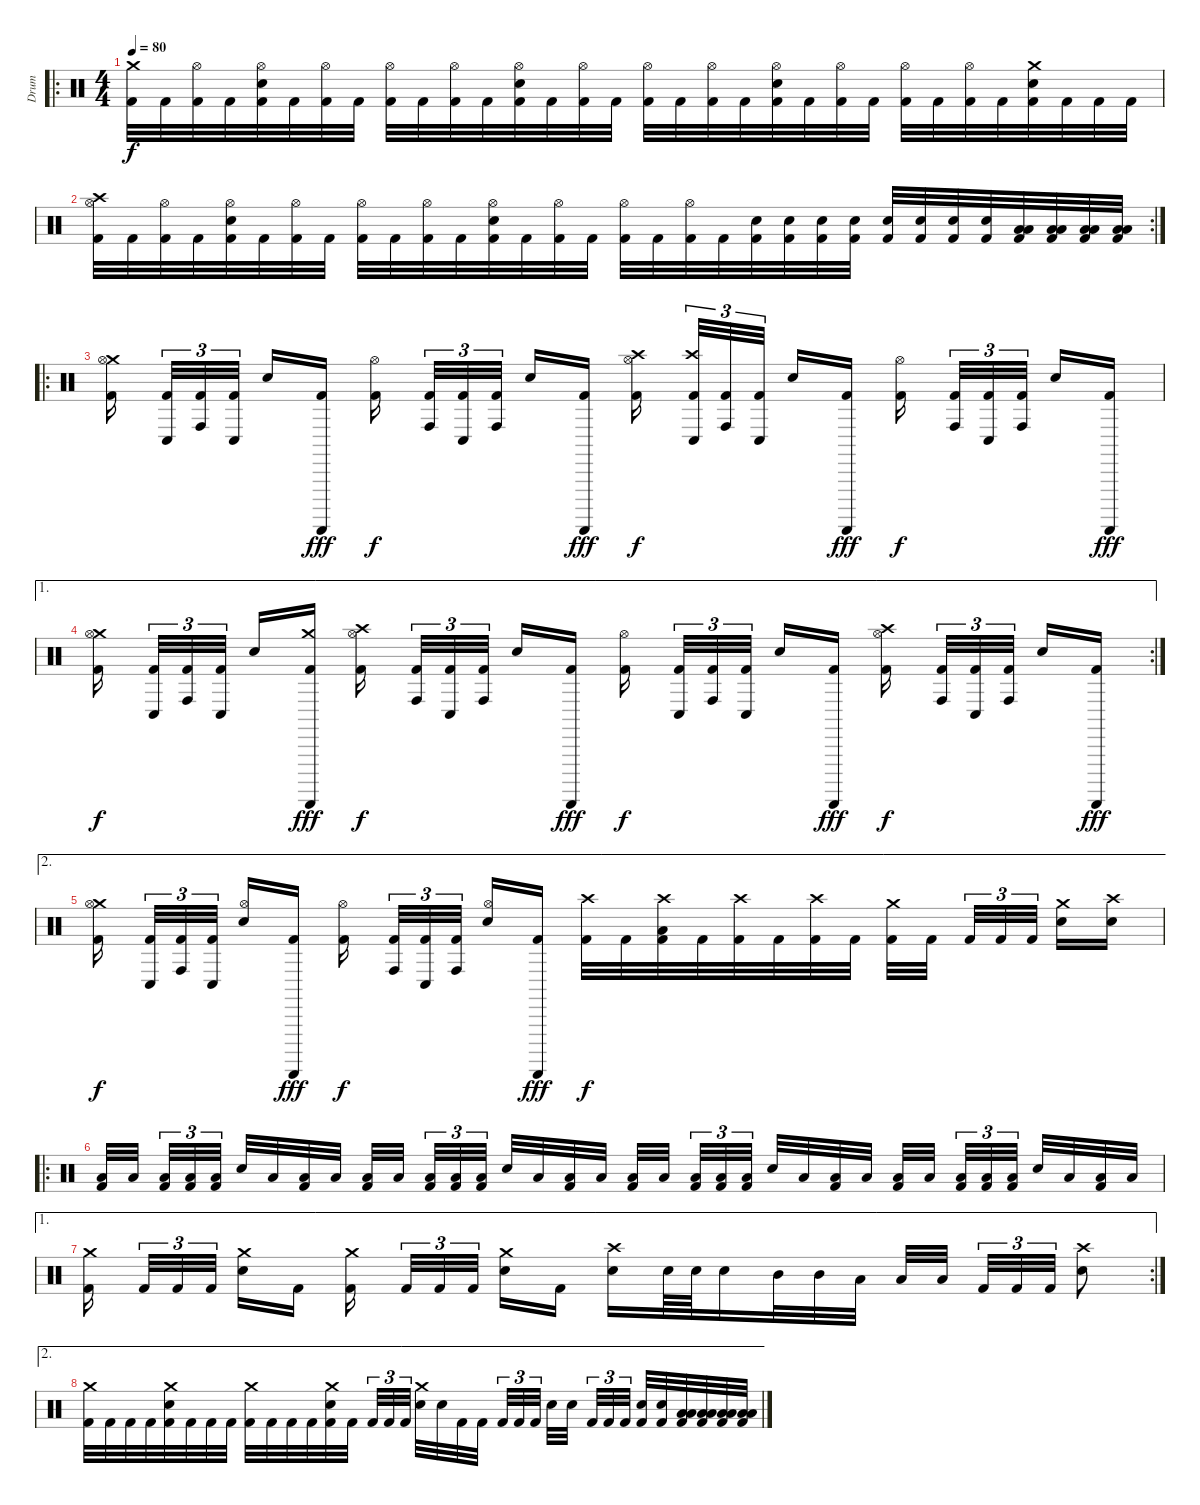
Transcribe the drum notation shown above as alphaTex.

\track ("Drum" "Drum") {instrument percussion}
\staff {score}
\articulation defaults
\ro
\ts (4 4)
\tempo 80
\clef neutral
\ks c
("Crash medium (hit)" "Kick (hit) 2").32{dy f} "Kick (hit) 2".32 ("Hi-Hat (open)" "Kick (hit) 2").32 "Kick (hit) 2".32 ("Hi-Hat (open)" "Electric Snare (hit)" "Kick (hit) 2").32 "Kick (hit) 2".32 ("Hi-Hat (open)" "Kick (hit) 2").32 "Kick (hit) 2".32 ("Hi-Hat (open)" "Kick (hit) 2").32 "Kick (hit) 2".32 ("Hi-Hat (open)" "Kick (hit) 2").32 "Kick (hit) 2".32 ("Hi-Hat (open)" "Electric Snare (hit)" "Kick (hit) 2").32 "Kick (hit) 2".32 ("Hi-Hat (open)" "Kick (hit) 2").32 "Kick (hit) 2".32 ("Hi-Hat (open)" "Kick (hit) 2").32 "Kick (hit) 2".32 ("Hi-Hat (open)" "Kick (hit) 2").32 "Kick (hit) 2".32 ("Hi-Hat (open)" "Electric Snare (hit)" "Kick (hit) 2").32 "Kick (hit) 2".32 ("Hi-Hat (open)" "Kick (hit) 2").32 "Kick (hit) 2".32 ("Hi-Hat (open)" "Kick (hit) 2").32 "Kick (hit) 2".32 ("Hi-Hat (open)" "Kick (hit) 2").32 "Kick (hit) 2".32 ("Crash medium (hit)" "Electric Snare (hit)" "Kick (hit) 2").32 "Kick (hit) 2".32 "Kick (hit) 2".32 "Kick (hit) 2".32 |
\rc 2
("Crash high (hit)" "Hi-Hat (open)" "Kick (hit) 2").32 "Kick (hit) 2".32 ("Hi-Hat (open)" "Kick (hit) 2").32 "Kick (hit) 2".32 ("Hi-Hat (open)" "Electric Snare (hit)" "Kick (hit) 2").32 "Kick (hit) 2".32 ("Hi-Hat (open)" "Kick (hit) 2").32 "Kick (hit) 2".32 ("Hi-Hat (open)" "Kick (hit) 2").32 "Kick (hit) 2".32 ("Hi-Hat (open)" "Kick (hit) 2").32 "Kick (hit) 2".32 ("Hi-Hat (open)" "Electric Snare (hit)" "Kick (hit) 2").32 "Kick (hit) 2".32 ("Hi-Hat (open)" "Kick (hit) 2").32 "Kick (hit) 2".32 ("Hi-Hat (open)" "Kick (hit) 2").32 "Kick (hit) 2".32 ("Hi-Hat (open)" "Kick (hit) 2").32 "Kick (hit) 2".32 ("Electric Snare (hit)" "Kick (hit) 2").32 ("Electric Snare (hit)" "Kick (hit) 2").32 ("Electric Snare (hit)" "Kick (hit) 2").32 ("Electric Snare (hit)" "Kick (hit) 2").32 ("Electric Snare (hit)" "Kick (hit) 2").32 ("Electric Snare (hit)" "Kick (hit) 2").32 ("Electric Snare (hit)" "Kick (hit) 2").32 ("Electric Snare (hit)" "Kick (hit) 2").32 ("Low Tom (hit)" "Low Tom (hit)" "Kick (hit) 2").32 ("Low Tom (hit)" "Low Tom (hit)" "Kick (hit) 2").32 ("Low Tom (hit)" "Low Tom (hit)" "Kick (hit) 2").32 ("Low Tom (hit)" "Low Tom (hit)" "Kick (hit) 2").32 |
\ro
("Crash medium (hit)" "Hi-Hat (open)" "Kick (hit) 2").16 ("Conga low (hit)" "Kick (hit) 2").32{tu (3 2)} ("Conga high (hit)" "Kick (hit) 2").32{tu (3 2)} ("Conga low (hit)" "Kick (hit) 2").32{tu (3 2)} "Electric Snare (hit)".16 ("Guiro (scrap-return)" "Kick (hit) 2").16{dy fff} ("Hi-Hat (open)" "Kick (hit) 2").16{dy f} ("Conga high (hit)" "Kick (hit) 2").32{tu (3 2)} ("Conga low (hit)" "Kick (hit) 2").32{tu (3 2)} ("Conga high (hit)" "Kick (hit) 2").32{tu (3 2)} "Electric Snare (hit)".16 ("Guiro (scrap-return)" "Kick (hit) 2").16{dy fff} ("Crash high (hit)" "Hi-Hat (open)" "Kick (hit) 2").16{dy f} ("Crash high (hit)" "Conga low (hit)" "Kick (hit) 2").32{tu (3 2)} ("Conga high (hit)" "Kick (hit) 2").32{tu (3 2)} ("Conga low (hit)" "Kick (hit) 2").32{tu (3 2)} "Electric Snare (hit)".16 ("Guiro (scrap-return)" "Kick (hit) 2").16{dy fff} ("Hi-Hat (open)" "Kick (hit) 2").16{dy f} ("Conga high (hit)" "Kick (hit) 2").32{tu (3 2)} ("Conga low (hit)" "Kick (hit) 2").32{tu (3 2)} ("Conga high (hit)" "Kick (hit) 2").32{tu (3 2)} "Electric Snare (hit)".16 ("Guiro (scrap-return)" "Kick (hit) 2").16{dy fff} |
\ae 1
\rc 2
("Crash medium (hit)" "Hi-Hat (open)" "Kick (hit) 2").16{dy f} ("Conga low (hit)" "Kick (hit) 2").32{tu (3 2)} ("Conga high (hit)" "Kick (hit) 2").32{tu (3 2)} ("Conga low (hit)" "Kick (hit) 2").32{tu (3 2)} "Electric Snare (hit)".16 ("Guiro (scrap-return)" "Crash medium (hit)" "Kick (hit) 2").16{dy fff} ("Crash high (hit)" "Hi-Hat (open)" "Kick (hit) 2").16{dy f} ("Conga high (hit)" "Kick (hit) 2").32{tu (3 2)} ("Conga low (hit)" "Kick (hit) 2").32{tu (3 2)} ("Conga high (hit)" "Kick (hit) 2").32{tu (3 2)} "Electric Snare (hit)".16 ("Guiro (scrap-return)" "Kick (hit) 2").16{dy fff} ("Hi-Hat (open)" "Kick (hit) 2").16{dy f} ("Conga low (hit)" "Kick (hit) 2").32{tu (3 2)} ("Conga high (hit)" "Kick (hit) 2").32{tu (3 2)} ("Conga low (hit)" "Kick (hit) 2").32{tu (3 2)} "Electric Snare (hit)".16 ("Guiro (scrap-return)" "Kick (hit) 2").16{dy fff} ("Crash high (hit)" "Hi-Hat (open)" "Kick (hit) 2").16{dy f} ("Conga high (hit)" "Kick (hit) 2").32{tu (3 2)} ("Conga low (hit)" "Kick (hit) 2").32{tu (3 2)} ("Conga high (hit)" "Kick (hit) 2").32{tu (3 2)} "Electric Snare (hit)".16 ("Guiro (scrap-return)" "Kick (hit) 2").16{dy fff} |
\ae 2
("Crash medium (hit)" "Hi-Hat (open)" "Kick (hit) 2").16{dy f} ("Conga low (hit)" "Kick (hit) 2").32{tu (3 2)} ("Conga high (hit)" "Kick (hit) 2").32{tu (3 2)} ("Conga low (hit)" "Kick (hit) 2").32{tu (3 2)} ("Hi-Hat (open)" "Electric Snare (hit)").16 ("Guiro (scrap-return)" "Kick (hit) 2").16{dy fff} ("Hi-Hat (open)" "Kick (hit) 2").16{dy f} ("Conga high (hit)" "Kick (hit) 2").32{tu (3 2)} ("Conga low (hit)" "Kick (hit) 2").32{tu (3 2)} ("Conga high (hit)" "Kick (hit) 2").32{tu (3 2)} ("Hi-Hat (open)" "Electric Snare (hit)").16 ("Guiro (scrap-return)" "Kick (hit) 2").16{dy fff} ("Crash high (hit)" "Kick (hit) 2").32{dy f} "Kick (hit) 2".32 ("Crash high (hit)" "Low Tom (hit)" "Kick (hit) 2").32 "Kick (hit) 2".32 ("Crash high (hit)" "Kick (hit) 2").32 "Kick (hit) 2".32 ("Crash high (hit)" "Kick (hit) 2").32 "Kick (hit) 2".32 ("Crash medium (hit)" "Kick (hit) 2").32 "Kick (hit) 2".32 "Kick (hit) 2".32{tu (3 2)} "Kick (hit) 2".32{tu (3 2)} "Kick (hit) 2".32{tu (3 2)} ("Crash medium (hit)" "Electric Snare (hit)").16 ("Crash high (hit)" "Electric Snare (hit)").16 |
\ro
("Low Tom (hit)" "Kick (hit) 2").32 "Low Tom (hit)".32 ("Low Tom (hit)" "Kick (hit) 2").32{tu (3 2)} ("Low Tom (hit)" "Kick (hit) 2").32{tu (3 2)} ("Low Tom (hit)" "Kick (hit) 2").32{tu (3 2)} "Electric Snare (hit)".32 "Low Tom (hit)".32 ("Low Tom (hit)" "Kick (hit) 2").32 "Low Tom (hit)".32 ("Low Tom (hit)" "Kick (hit) 2").32 "Low Tom (hit)".32 ("Low Tom (hit)" "Kick (hit) 2").32{tu (3 2)} ("Low Tom (hit)" "Kick (hit) 2").32{tu (3 2)} ("Low Tom (hit)" "Kick (hit) 2").32{tu (3 2)} "Electric Snare (hit)".32 "Low Tom (hit)".32 ("Low Tom (hit)" "Kick (hit) 2").32 "Low Tom (hit)".32 ("Low Tom (hit)" "Kick (hit) 2").32 "Low Tom (hit)".32 ("Low Tom (hit)" "Kick (hit) 2").32{tu (3 2)} ("Low Tom (hit)" "Kick (hit) 2").32{tu (3 2)} ("Low Tom (hit)" "Kick (hit) 2").32{tu (3 2)} "Electric Snare (hit)".32 "Low Tom (hit)".32 ("Low Tom (hit)" "Kick (hit) 2").32 "Low Tom (hit)".32 ("Low Tom (hit)" "Kick (hit) 2").32 "Low Tom (hit)".32 ("Low Tom (hit)" "Kick (hit) 2").32{tu (3 2)} ("Low Tom (hit)" "Kick (hit) 2").32{tu (3 2)} ("Low Tom (hit)" "Kick (hit) 2").32{tu (3 2)} "Electric Snare (hit)".32 "Low Tom (hit)".32 ("Low Tom (hit)" "Kick (hit) 2").32 "Low Tom (hit)".32 |
\ae 1
\rc 2
("Crash medium (hit)" "Kick (hit) 2").16 "Kick (hit) 2".32{tu (3 2)} "Kick (hit) 2".32{tu (3 2)} "Kick (hit) 2".32{tu (3 2)} ("Crash medium (hit)" "Electric Snare (hit)").16 "Kick (hit) 2".16 ("Crash medium (hit)" "Kick (hit) 2").16 "Kick (hit) 2".32{tu (3 2)} "Kick (hit) 2".32{tu (3 2)} "Kick (hit) 2".32{tu (3 2)} ("Crash medium (hit)" "Electric Snare (hit)").16 "Kick (hit) 2".16 ("Crash high (hit)" "Electric Snare (hit)").16 "Electric Snare (hit)".64 "Electric Snare (hit)".64 "Electric Snare (hit)".16 "Mid Tom (hit)".32 "Mid Tom (hit)".32 "Low Tom (hit)".32 "Low Tom (hit)".32 "Low Tom (hit)".32 "Kick (hit) 2".32{tu (3 2)} "Kick (hit) 2".32{tu (3 2)} "Kick (hit) 2".32{tu (3 2)} ("Crash high (hit)" "Electric Snare (hit)").8 |
\ae 2
("Crash medium (hit)" "Kick (hit) 2").32 "Kick (hit) 2".32 "Kick (hit) 2".32 "Kick (hit) 2".32 ("Crash medium (hit)" "Electric Snare (hit)" "Kick (hit) 2").32 "Kick (hit) 2".32 "Kick (hit) 2".32 "Kick (hit) 2".32 ("Crash medium (hit)" "Kick (hit) 2").32 "Kick (hit) 2".32 "Kick (hit) 2".32 "Kick (hit) 2".32 ("Crash medium (hit)" "Electric Snare (hit)" "Kick (hit) 2").32 "Kick (hit) 2".32 "Kick (hit) 2".32{tu (3 2)} "Kick (hit) 2".32{tu (3 2)} "Kick (hit) 2".32{tu (3 2)} ("Crash medium (hit)" "Electric Snare (hit)").32 "Electric Snare (hit)".32 "Kick (hit) 2".32 "Kick (hit) 2".32 "Kick (hit) 2".32{tu (3 2)} "Kick (hit) 2".32{tu (3 2)} "Kick (hit) 2".32{tu (3 2)} "Electric Snare (hit)".32 "Electric Snare (hit)".32 "Kick (hit) 2".32{tu (3 2)} "Kick (hit) 2".32{tu (3 2)} "Kick (hit) 2".32{tu (3 2)} ("Electric Snare (hit)" "Kick (hit) 2").32 ("Electric Snare (hit)" "Kick (hit) 2").32 ("Low Tom (hit)" "Low Tom (hit)" "Kick (hit) 2").32 ("Low Tom (hit)" "Low Tom (hit)" "Kick (hit) 2").32 ("Low Tom (hit)" "Low Tom (hit)" "Kick (hit) 2").32 ("Low Tom (hit)" "Low Tom (hit)" "Kick (hit) 2").32
